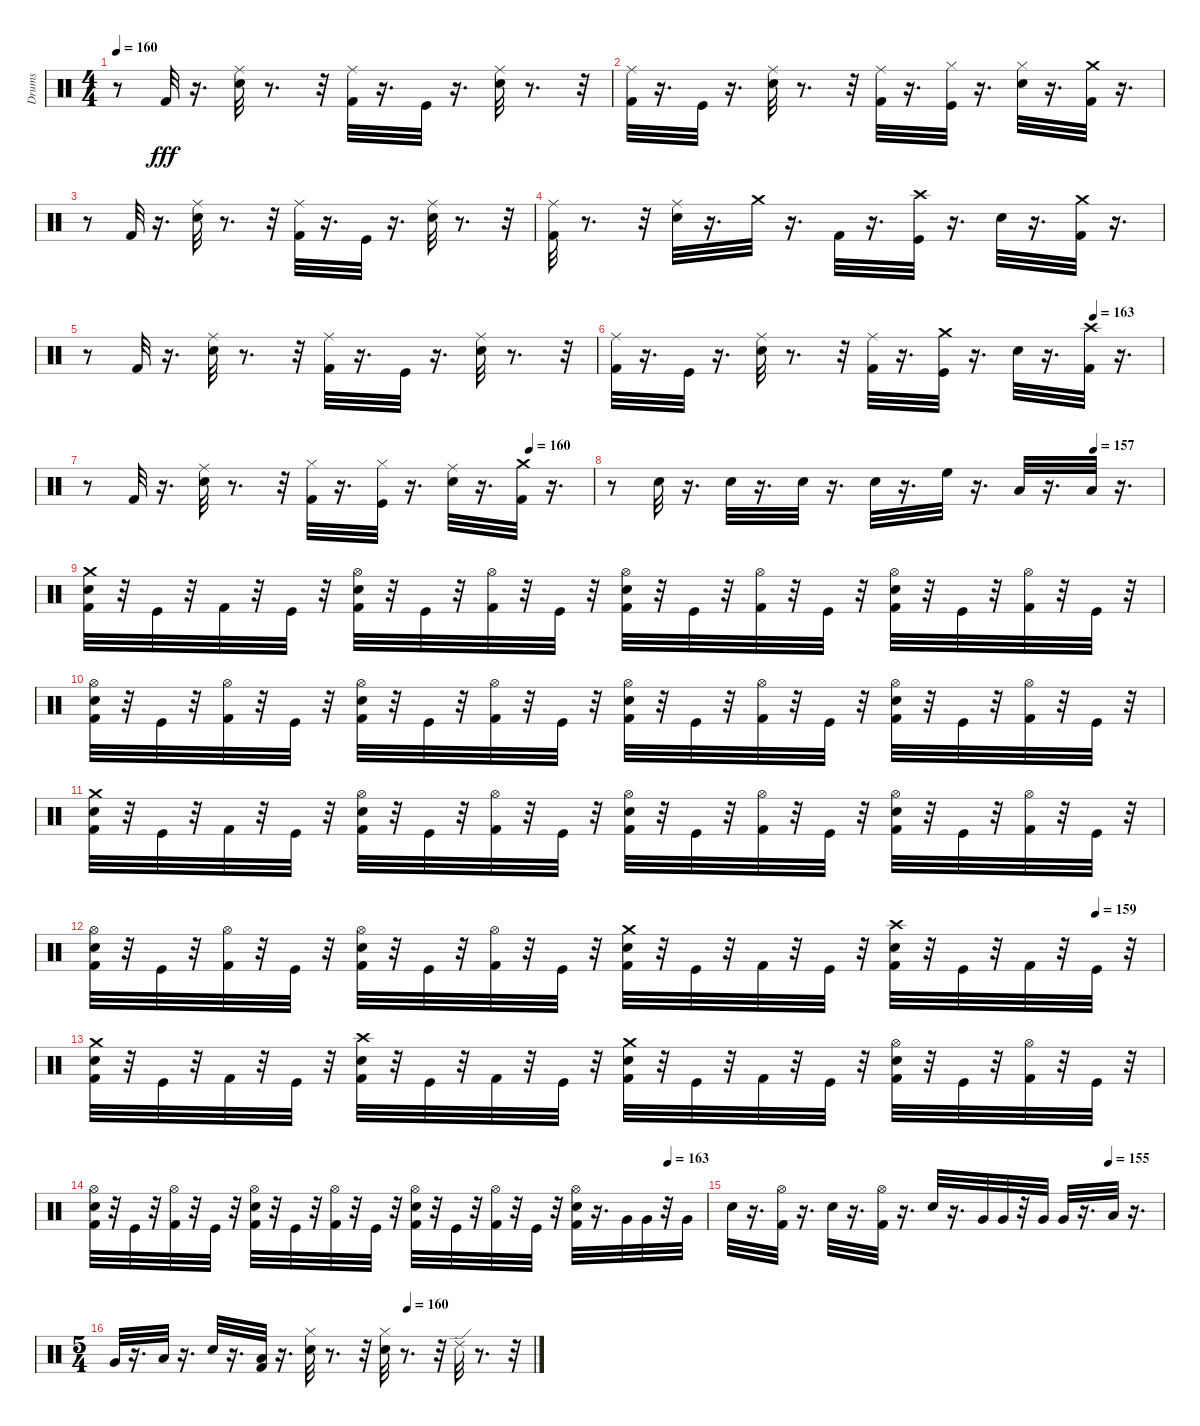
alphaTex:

\track ("Drums" "Drums") {instrument percussion}
\staff {score}
\articulation defaults
\ts (4 4)
\tempo 160
\clef neutral
\ks c
r.8{dy fff} "Kick (hit) 2".32 r.16{d} ("Snare (hit) 2" "Ride (middle)").32 r.8{d} r.32 ("Kick (hit) 2" "Ride (middle)").32 r.16{d} "Kick (hit)".32 r.16{d} ("Snare (hit) 2" "Ride (middle)").32 r.8{d} r.32 |
("Kick (hit) 2" "Ride (middle)").32 r.16{d} "Kick (hit)".32 r.16{d} ("Snare (hit) 2" "Ride (middle)").32 r.8{d} r.32 ("Kick (hit) 2" "Ride (middle)").32 r.16{d} ("Kick (hit)" "Hi-Hat (closed)").32 r.16{d} ("Snare (hit) 2" "Hi-Hat (closed)").32 r.16{d} ("Kick (hit) 2" "Crash medium (hit)").32 r.16{d} |
r.8 "Kick (hit) 2".32 r.16{d} ("Snare (hit) 2" "Ride (middle)").32 r.8{d} r.32 ("Kick (hit) 2" "Ride (middle)").32 r.16{d} "Kick (hit)".32 r.16{d} ("Snare (hit) 2" "Ride (middle)").32 r.8{d} r.32 |
("Kick (hit) 2" "Ride (middle)").32 r.8{d} r.32 ("Snare (hit) 2" "Ride (middle)").32 r.16{d} "Crash medium (hit)".32 r.16{d} "Kick (hit) 2".32 r.16{d} ("Kick (hit)" "Crash high (hit)").32 r.16{d} "Snare (hit) 2".32 r.16{d} ("Kick (hit) 2" "Crash medium (hit)").32 r.16{d} |
r.8 "Kick (hit) 2".32 r.16{d} ("Snare (hit) 2" "Ride (middle)").32 r.8{d} r.32 ("Kick (hit) 2" "Ride (middle)").32 r.16{d} "Kick (hit)".32 r.16{d} ("Snare (hit) 2" "Ride (middle)").32 r.8{d} r.32 |
\tempo (163 0.875)
("Kick (hit) 2" "Ride (middle)").32 r.16{d} "Kick (hit)".32 r.16{d} ("Snare (hit) 2" "Ride (middle)").32 r.8{d} r.32 ("Kick (hit) 2" "Ride (middle)").32 r.16{d} ("Kick (hit)" "Crash medium (hit)").32 r.16{d} "Snare (hit) 2".32 r.16{d} ("Kick (hit) 2" "Crash high (hit)").32 r.16{d} |
\tempo (160 0.875)
r.8 "Kick (hit) 2".32 r.16{d} ("Snare (hit) 2" "Ride (middle)").32 r.8{d} r.32 ("Kick (hit) 2" "Hi-Hat (closed)").32 r.16{d} ("Kick (hit)" "Hi-Hat (closed)").32 r.16{d} ("Snare (hit) 2" "Ride (middle)").32 r.16{d} ("Kick (hit) 2" "Crash medium (hit)").32 r.16{d} |
\tempo (157 0.875)
r.8 "Snare (hit) 2".32 r.16{d} "Snare (hit) 2".32 r.16{d} "Snare (hit) 2".32 r.16{d} "Snare (hit) 2".32 r.16{d} "High Floor Tom (hit)".32 r.16{d} "Low Tom (hit)".32 r.16{d} "Low Floor Tom (hit)".32 r.16{d} |
("Crash medium (hit)" "Snare (hit) 2" "Kick (hit) 2").32 r.32 "Kick (hit)".32 r.32 "Kick (hit) 2".32 r.32 "Kick (hit)".32 r.32 ("Hi-Hat (open)" "Snare (hit) 2" "Kick (hit) 2").32 r.32 "Kick (hit)".32 r.32 ("Hi-Hat (open)" "Kick (hit) 2").32 r.32 "Kick (hit)".32 r.32 ("Hi-Hat (open)" "Snare (hit) 2" "Kick (hit) 2").32 r.32 "Kick (hit)".32 r.32 ("Hi-Hat (open)" "Kick (hit) 2").32 r.32 "Kick (hit)".32 r.32 ("Hi-Hat (open)" "Snare (hit) 2" "Kick (hit) 2").32 r.32 "Kick (hit)".32 r.32 ("Hi-Hat (open)" "Kick (hit) 2").32 r.32 "Kick (hit)".32 r.32 |
("Hi-Hat (open)" "Snare (hit) 2" "Kick (hit) 2").32 r.32 "Kick (hit)".32 r.32 ("Hi-Hat (open)" "Kick (hit) 2").32 r.32 "Kick (hit)".32 r.32 ("Hi-Hat (open)" "Snare (hit) 2" "Kick (hit) 2").32 r.32 "Kick (hit)".32 r.32 ("Hi-Hat (open)" "Kick (hit) 2").32 r.32 "Kick (hit)".32 r.32 ("Hi-Hat (open)" "Snare (hit) 2" "Kick (hit) 2").32 r.32 "Kick (hit)".32 r.32 ("Hi-Hat (open)" "Kick (hit) 2").32 r.32 "Kick (hit)".32 r.32 ("Hi-Hat (open)" "Snare (hit) 2" "Kick (hit) 2").32 r.32 "Kick (hit)".32 r.32 ("Hi-Hat (open)" "Kick (hit) 2").32 r.32 "Kick (hit)".32 r.32 |
("Crash medium (hit)" "Snare (hit) 2" "Kick (hit) 2").32 r.32 "Kick (hit)".32 r.32 "Kick (hit) 2".32 r.32 "Kick (hit)".32 r.32 ("Hi-Hat (open)" "Snare (hit) 2" "Kick (hit) 2").32 r.32 "Kick (hit)".32 r.32 ("Hi-Hat (open)" "Kick (hit) 2").32 r.32 "Kick (hit)".32 r.32 ("Hi-Hat (open)" "Snare (hit) 2" "Kick (hit) 2").32 r.32 "Kick (hit)".32 r.32 ("Hi-Hat (open)" "Kick (hit) 2").32 r.32 "Kick (hit)".32 r.32 ("Hi-Hat (open)" "Snare (hit) 2" "Kick (hit) 2").32 r.32 "Kick (hit)".32 r.32 ("Hi-Hat (open)" "Kick (hit) 2").32 r.32 "Kick (hit)".32 r.32 |
\tempo (159 0.9375)
("Hi-Hat (open)" "Snare (hit) 2" "Kick (hit) 2").32 r.32 "Kick (hit)".32 r.32 ("Hi-Hat (open)" "Kick (hit) 2").32 r.32 "Kick (hit)".32 r.32 ("Hi-Hat (open)" "Snare (hit) 2" "Kick (hit) 2").32 r.32 "Kick (hit)".32 r.32 ("Hi-Hat (open)" "Kick (hit) 2").32 r.32 "Kick (hit)".32 r.32 ("Crash medium (hit)" "Snare (hit) 2" "Kick (hit) 2").32 r.32 "Kick (hit)".32 r.32 "Kick (hit) 2".32 r.32 "Kick (hit)".32 r.32 ("Crash high (hit)" "Snare (hit) 2" "Kick (hit) 2").32 r.32 "Kick (hit)".32 r.32 "Kick (hit) 2".32 r.32 "Kick (hit)".32 r.32 |
("Crash medium (hit)" "Snare (hit) 2" "Kick (hit) 2").32 r.32 "Kick (hit)".32 r.32 "Kick (hit) 2".32 r.32 "Kick (hit)".32 r.32 ("Crash high (hit)" "Snare (hit) 2" "Kick (hit) 2").32 r.32 "Kick (hit)".32 r.32 "Kick (hit) 2".32 r.32 "Kick (hit)".32 r.32 ("Crash medium (hit)" "Snare (hit) 2" "Kick (hit) 2").32 r.32 "Kick (hit)".32 r.32 "Kick (hit) 2".32 r.32 "Kick (hit)".32 r.32 ("Hi-Hat (open)" "Snare (hit) 2" "Kick (hit) 2").32 r.32 "Kick (hit)".32 r.32 ("Hi-Hat (open)" "Kick (hit) 2").32 r.32 "Kick (hit)".32 r.32 |
\tempo (163 0.9375)
("Hi-Hat (open)" "Snare (hit) 2" "Kick (hit) 2").32 r.32 "Kick (hit)".32 r.32 ("Hi-Hat (open)" "Kick (hit) 2").32 r.32 "Kick (hit)".32 r.32 ("Hi-Hat (open)" "Snare (hit) 2" "Kick (hit) 2").32 r.32 "Kick (hit)".32 r.32 ("Hi-Hat (open)" "Kick (hit) 2").32 r.32 "Kick (hit)".32 r.32 ("Hi-Hat (open)" "Snare (hit) 2" "Kick (hit) 2").32 r.32 "Kick (hit)".32 r.32 ("Hi-Hat (open)" "Kick (hit) 2").32 r.32 "Kick (hit)".32 r.32 ("Hi-Hat (open)" "Snare (hit) 2" "Kick (hit) 2").32 r.16{d} "Very Low Tom (hit)".32 "Very Low Tom (hit)".32 r.32 "Very Low Tom (hit)".32 |
\tempo (155 0.875)
"Snare (hit) 2".32 r.16{d} ("Kick (hit) 2" "Hi-Hat (open)").32 r.16{d} "Snare (hit) 2".32 r.16{d} ("Hi-Hat (open)" "Kick (hit) 2").32 r.16{d} "Snare (hit) 2".32 r.16{d} "Very Low Tom (hit)".32 "Very Low Tom (hit)".32 r.32 "Very Low Tom (hit)".32 "Very Low Tom (hit)".32 r.16{d} "Low Floor Tom (hit)".32 r.16{d} |
\ts (5 4)
\tempo (160 0.7)
"Very Low Tom (hit)".32 r.16{d} "Low Floor Tom (hit)".32 r.16{d} "Snare (hit) 2".32 r.16{d} ("Kick (hit) 2" "Low Floor Tom (hit)").32 r.16{d} ("Hi-Hat (closed)" "Snare (hit) 2").32 r.8{d} r.32 ("Hi-Hat (closed)" "Snare (hit) 2").32 r.8{d} r.32 "Ride (edge) 2".32 r.8{d} r.32
